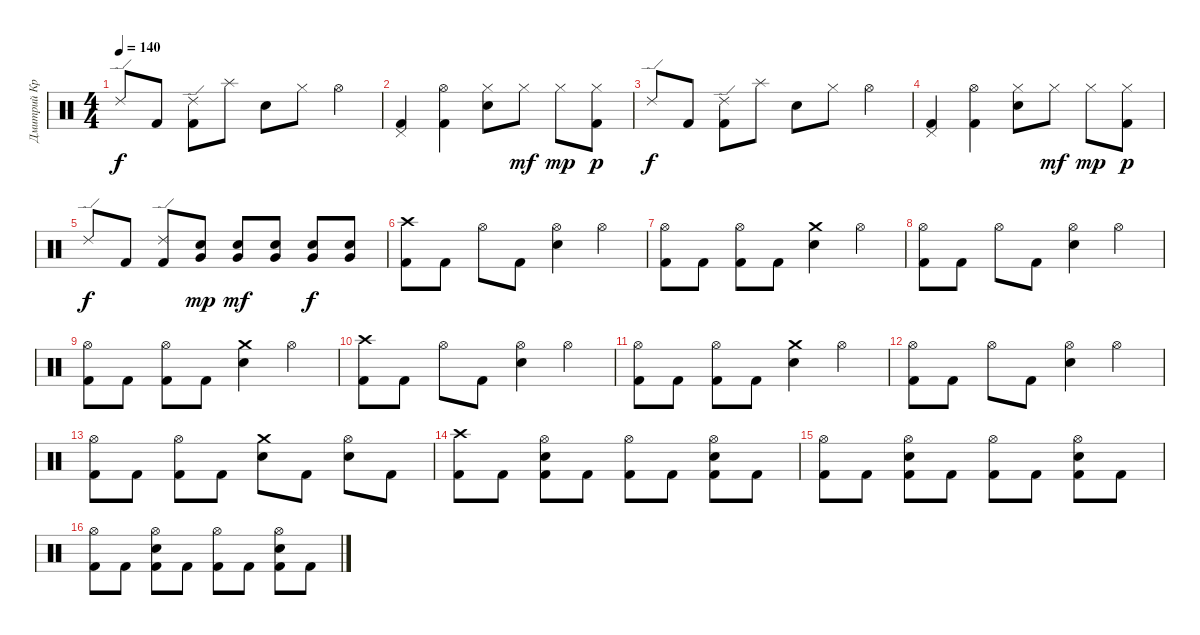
\track ("Дмитрий Кривенков" "Дмитрий Кр") {instrument percussion}
\staff {score}
\articulation defaults
\ts (4 4)
\tempo 140
\clef neutral
\ks c "Ride (edge) 2".8{dy f} "Kick (hit) 2".8
("Ride (edge) 2" "Kick (hit) 2").8 "Splash (hit)".8 "Electric Snare (hit)".8 "Hi-Hat (closed)".8 "Hi-Hat (open)".4 |
("Pedal Hi-Hat (hit)" "Kick (hit) 2").4 ("Hi-Hat (open)" "Kick (hit) 2").4 ("Hi-Hat (closed)" "Electric Snare (hit)").8 "Hi-Hat (closed)".8{dy mf} "Hi-Hat (closed)".8{dy mp} ("Hi-Hat (closed)" "Kick (hit) 2").8{dy p} |
"Ride (edge) 2".8{dy f} "Kick (hit) 2".8 ("Ride (edge) 2" "Kick (hit) 2").8 "Splash (hit)".8 "Electric Snare (hit)".8 "Hi-Hat (closed)".8 "Hi-Hat (open)".4 |
("Pedal Hi-Hat (hit)" "Kick (hit) 2").4 ("Hi-Hat (open)" "Kick (hit) 2").4 ("Hi-Hat (closed)" "Electric Snare (hit)").8 "Hi-Hat (closed)".8{dy mf} "Hi-Hat (closed)".8{dy mp} ("Hi-Hat (closed)" "Kick (hit) 2").8{dy p} |
"Ride (edge) 2".8{dy f} "Kick (hit) 2".8 ("Ride (edge) 2" "Kick (hit) 2").8 ("Electric Snare (hit)" "Very Low Tom (hit)").8{dy mp} ("Electric Snare (hit)" "Very Low Tom (hit)").8{dy mf} ("Electric Snare (hit)" "Very Low Tom (hit)").8 ("Electric Snare (hit)" "Very Low Tom (hit)").8{dy f} ("Electric Snare (hit)" "Very Low Tom (hit)").8 |
("Crash high (hit)" "Kick (hit) 2").8 "Kick (hit) 2".8 "Hi-Hat (open)".8 "Kick (hit) 2".8 ("Hi-Hat (open)" "Electric Snare (hit)").4 "Hi-Hat (open)".4 |
("Hi-Hat (open)" "Kick (hit) 2").8 "Kick (hit) 2".8 ("Hi-Hat (open)" "Kick (hit) 2").8 "Kick (hit) 2".8 ("Crash medium (hit)" "Electric Snare (hit)").4 "Hi-Hat (open)".4 |
("Hi-Hat (open)" "Kick (hit) 2").8 "Kick (hit) 2".8 "Hi-Hat (open)".8 "Kick (hit) 2".8 ("Hi-Hat (open)" "Electric Snare (hit)").4 "Hi-Hat (open)".4 |
("Hi-Hat (open)" "Kick (hit) 2").8 "Kick (hit) 2".8 ("Hi-Hat (open)" "Kick (hit) 2").8 "Kick (hit) 2".8 ("Crash medium (hit)" "Electric Snare (hit)").4 "Hi-Hat (open)".4 |
("Crash high (hit)" "Kick (hit) 2").8 "Kick (hit) 2".8 "Hi-Hat (open)".8 "Kick (hit) 2".8 ("Hi-Hat (open)" "Electric Snare (hit)").4 "Hi-Hat (open)".4 |
("Hi-Hat (open)" "Kick (hit) 2").8 "Kick (hit) 2".8 ("Hi-Hat (open)" "Kick (hit) 2").8 "Kick (hit) 2".8 ("Crash medium (hit)" "Electric Snare (hit)").4 "Hi-Hat (open)".4 |
("Hi-Hat (open)" "Kick (hit) 2").8 "Kick (hit) 2".8 "Hi-Hat (open)".8 "Kick (hit) 2".8 ("Hi-Hat (open)" "Electric Snare (hit)").4 "Hi-Hat (open)".4 |
("Hi-Hat (open)" "Kick (hit) 2").8 "Kick (hit) 2".8 ("Hi-Hat (open)" "Kick (hit) 2").8 "Kick (hit) 2".8 ("Crash medium (hit)" "Electric Snare (hit)").8 "Kick (hit) 2".8 ("Hi-Hat (open)" "Electric Snare (hit)").8 "Kick (hit) 2".8 |
("Crash high (hit)" "Kick (hit) 2").8 "Kick (hit) 2".8 ("Hi-Hat (open)" "Electric Snare (hit)" "Kick (hit) 2").8 "Kick (hit) 2".8 ("Hi-Hat (open)" "Kick (hit) 2").8 "Kick (hit) 2".8 ("Hi-Hat (open)" "Electric Snare (hit)" "Kick (hit) 2").8 "Kick (hit) 2".8 |
("Hi-Hat (open)" "Kick (hit) 2").8 "Kick (hit) 2".8 ("Hi-Hat (open)" "Electric Snare (hit)" "Kick (hit) 2").8 "Kick (hit) 2".8 ("Hi-Hat (open)" "Kick (hit) 2").8 "Kick (hit) 2".8 ("Hi-Hat (open)" "Electric Snare (hit)" "Kick (hit) 2").8 "Kick (hit) 2".8 |
("Hi-Hat (open)" "Kick (hit) 2").8 "Kick (hit) 2".8 ("Hi-Hat (open)" "Electric Snare (hit)" "Kick (hit) 2").8 "Kick (hit) 2".8 ("Hi-Hat (open)" "Kick (hit) 2").8 "Kick (hit) 2".8 ("Hi-Hat (open)" "Electric Snare (hit)" "Kick (hit) 2").8 "Kick (hit) 2".8
